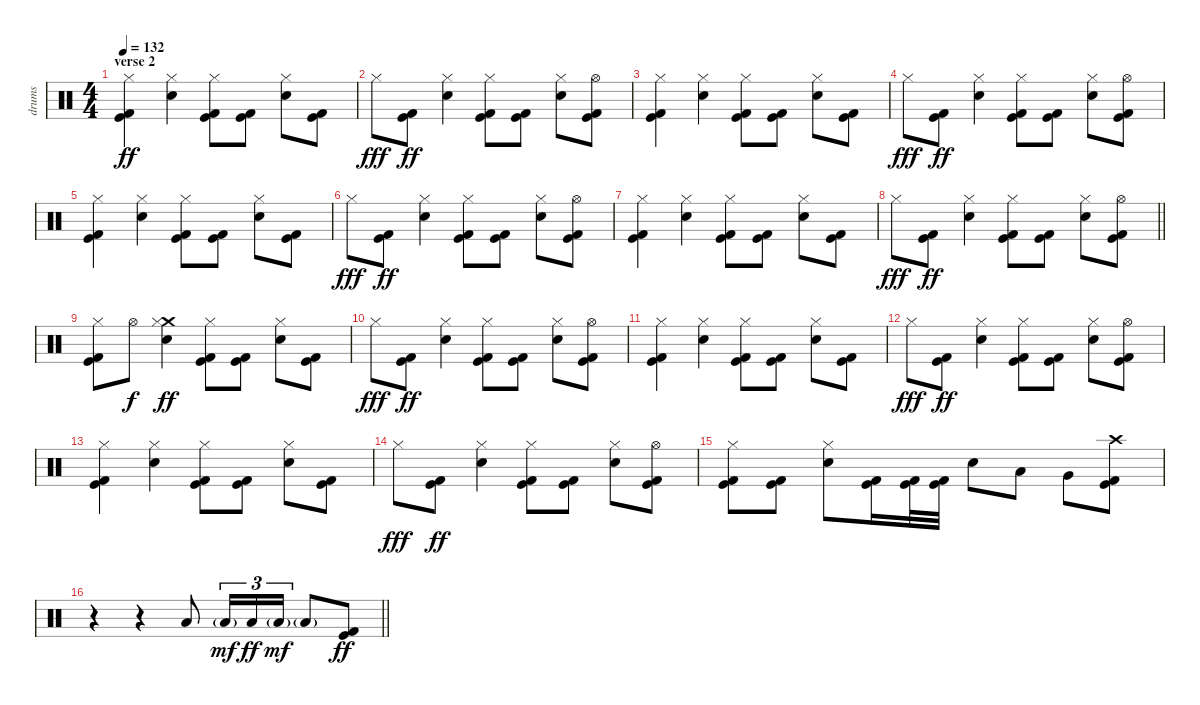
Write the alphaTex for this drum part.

\track ("drums" "drums") {instrument percussion}
\staff {score}
\articulation defaults
\ts (4 4)
\section ("" "verse 2")
\tempo 132
\clef neutral
\ks c
("Hi-Hat (closed)" "Kick (hit)" "Kick (hit) 2").4{dy ff} ("Electric Snare (hit)" "Hi-Hat (closed)").4 ("Hi-Hat (closed)" "Kick (hit)" "Kick (hit) 2").8 ("Kick (hit)" "Kick (hit) 2").8 ("Electric Snare (hit)" "Hi-Hat (closed)").8 ("Kick (hit)" "Kick (hit) 2").8 |
"Hi-Hat (closed)".8{dy fff} ("Kick (hit)" "Kick (hit) 2").8{dy ff} ("Electric Snare (hit)" "Hi-Hat (closed)").4 ("Hi-Hat (closed)" "Kick (hit)" "Kick (hit) 2").8 ("Kick (hit)" "Kick (hit) 2").8 ("Electric Snare (hit)" "Hi-Hat (closed)").8 ("Hi-Hat (open)" "Kick (hit)" "Kick (hit) 2").8 |
("Hi-Hat (closed)" "Kick (hit)" "Kick (hit) 2").4 ("Electric Snare (hit)" "Hi-Hat (closed)").4 ("Hi-Hat (closed)" "Kick (hit)" "Kick (hit) 2").8 ("Kick (hit)" "Kick (hit) 2").8 ("Electric Snare (hit)" "Hi-Hat (closed)").8 ("Kick (hit)" "Kick (hit) 2").8 |
"Hi-Hat (closed)".8{dy fff} ("Kick (hit)" "Kick (hit) 2").8{dy ff} ("Electric Snare (hit)" "Hi-Hat (closed)").4 ("Hi-Hat (closed)" "Kick (hit)" "Kick (hit) 2").8 ("Kick (hit)" "Kick (hit) 2").8 ("Electric Snare (hit)" "Hi-Hat (closed)").8 ("Hi-Hat (open)" "Kick (hit)" "Kick (hit) 2").8 |
("Hi-Hat (closed)" "Kick (hit)" "Kick (hit) 2").4 ("Electric Snare (hit)" "Hi-Hat (closed)").4 ("Hi-Hat (closed)" "Kick (hit)" "Kick (hit) 2").8 ("Kick (hit)" "Kick (hit) 2").8 ("Electric Snare (hit)" "Hi-Hat (closed)").8 ("Kick (hit)" "Kick (hit) 2").8 |
"Hi-Hat (closed)".8{dy fff} ("Kick (hit)" "Kick (hit) 2").8{dy ff} ("Electric Snare (hit)" "Hi-Hat (closed)").4 ("Hi-Hat (closed)" "Kick (hit)" "Kick (hit) 2").8 ("Kick (hit)" "Kick (hit) 2").8 ("Electric Snare (hit)" "Hi-Hat (closed)").8 ("Hi-Hat (open)" "Kick (hit)" "Kick (hit) 2").8 |
("Hi-Hat (closed)" "Kick (hit)" "Kick (hit) 2").4 ("Electric Snare (hit)" "Hi-Hat (closed)").4 ("Hi-Hat (closed)" "Kick (hit)" "Kick (hit) 2").8 ("Kick (hit)" "Kick (hit) 2").8 ("Electric Snare (hit)" "Hi-Hat (closed)").8 ("Kick (hit)" "Kick (hit) 2").8 |
\barLineRight lightlight "Hi-Hat (closed)".8{dy fff}
("Kick (hit)" "Kick (hit) 2").8{dy ff} ("Electric Snare (hit)" "Hi-Hat (closed)").4 ("Hi-Hat (closed)" "Kick (hit)" "Kick (hit) 2").8 ("Kick (hit)" "Kick (hit) 2").8 ("Electric Snare (hit)" "Hi-Hat (closed)").8 ("Hi-Hat (open)" "Kick (hit)" "Kick (hit) 2").8 |
\section ("" "")
("Hi-Hat (closed)" "Kick (hit)" "Kick (hit) 2").8 "Hi-Hat (open)".8{dy f} ("Crash medium (hit)" "Electric Snare (hit)" "Hi-Hat (closed)").4{dy ff} ("Hi-Hat (closed)" "Kick (hit)" "Kick (hit) 2").8 ("Kick (hit)" "Kick (hit) 2").8 ("Electric Snare (hit)" "Hi-Hat (closed)").8 ("Kick (hit)" "Kick (hit) 2").8 |
"Hi-Hat (closed)".8{dy fff} ("Kick (hit)" "Kick (hit) 2").8{dy ff} ("Electric Snare (hit)" "Hi-Hat (closed)").4 ("Hi-Hat (closed)" "Kick (hit)" "Kick (hit) 2").8 ("Kick (hit)" "Kick (hit) 2").8 ("Electric Snare (hit)" "Hi-Hat (closed)").8 ("Hi-Hat (open)" "Kick (hit)" "Kick (hit) 2").8 |
("Hi-Hat (closed)" "Kick (hit)" "Kick (hit) 2").4 ("Electric Snare (hit)" "Hi-Hat (closed)").4 ("Hi-Hat (closed)" "Kick (hit)" "Kick (hit) 2").8 ("Kick (hit)" "Kick (hit) 2").8 ("Electric Snare (hit)" "Hi-Hat (closed)").8 ("Kick (hit)" "Kick (hit) 2").8 |
"Hi-Hat (closed)".8{dy fff} ("Kick (hit)" "Kick (hit) 2").8{dy ff} ("Electric Snare (hit)" "Hi-Hat (closed)").4 ("Hi-Hat (closed)" "Kick (hit)" "Kick (hit) 2").8 ("Kick (hit)" "Kick (hit) 2").8 ("Electric Snare (hit)" "Hi-Hat (closed)").8 ("Hi-Hat (open)" "Kick (hit)" "Kick (hit) 2").8 |
("Hi-Hat (closed)" "Kick (hit)" "Kick (hit) 2").4 ("Electric Snare (hit)" "Hi-Hat (closed)").4 ("Hi-Hat (closed)" "Kick (hit)" "Kick (hit) 2").8 ("Kick (hit)" "Kick (hit) 2").8 ("Electric Snare (hit)" "Hi-Hat (closed)").8 ("Kick (hit)" "Kick (hit) 2").8 |
"Hi-Hat (closed)".8{dy fff} ("Kick (hit)" "Kick (hit) 2").8{dy ff} ("Electric Snare (hit)" "Hi-Hat (closed)").4 ("Hi-Hat (closed)" "Kick (hit)" "Kick (hit) 2").8 ("Kick (hit)" "Kick (hit) 2").8 ("Electric Snare (hit)" "Hi-Hat (closed)").8 ("Hi-Hat (open)" "Kick (hit)" "Kick (hit) 2").8 |
("Hi-Hat (closed)" "Kick (hit)" "Kick (hit) 2").8 ("Kick (hit)" "Kick (hit) 2").8 ("Electric Snare (hit)" "Hi-Hat (closed)").8 ("Kick (hit)" "Kick (hit) 2").16 ("Kick (hit)" "Kick (hit) 2").32 ("Kick (hit)" "Kick (hit) 2").32 "Electric Snare (hit)".8 "Low Tom (hit)".8 "Very Low Tom (hit)".8 ("Crash high (hit)" "Kick (hit)" "Kick (hit) 2").8 |
\barLineRight lightlight
r.4 r.4 "Low Tom (hit)".8 "Low Tom (hit)"{g}.16{tu (3 2) dy mf} "Low Tom (hit)".16{tu (3 2) dy ff} "Low Tom (hit)"{g}.16{tu (3 2) dy mf} "Low Tom (hit)"{g}.8 ("Kick (hit)" "Kick (hit) 2").8{dy ff}
